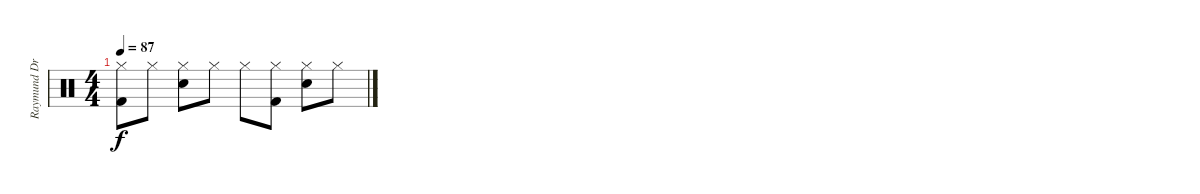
\track ("Raymund Drums" "Raymund Dr") {instrument percussion}
\staff {score}
\articulation defaults
\ts (4 4)
\tempo 87
\clef neutral
\ks c
("Hi-Hat (closed)" "Kick (hit) 2").8{dy f} "Hi-Hat (closed)".8 ("Hi-Hat (closed)" "Snare (hit) 2").8 "Hi-Hat (closed)".8 "Hi-Hat (closed)".8 ("Hi-Hat (closed)" "Kick (hit) 2").8 ("Hi-Hat (closed)" "Snare (hit) 2").8 "Hi-Hat (closed)".8
